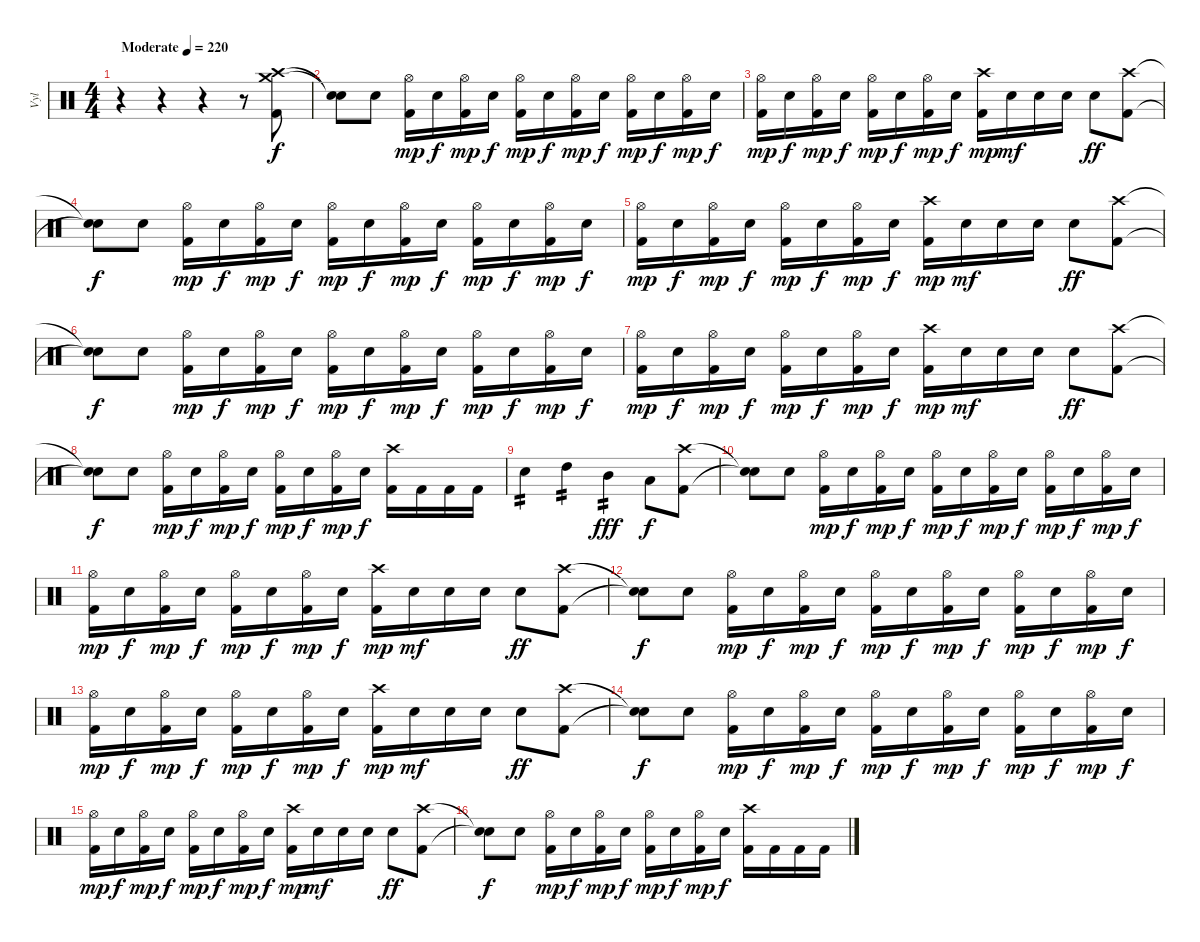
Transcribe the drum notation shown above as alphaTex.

\track ("Vyl" "Vyl") {instrument percussion}
\staff {score}
\articulation defaults
\ts (4 4)
\tempo (220 "Moderate")
\clef neutral
\ks c
r.4{dy f} r.4 r.4 r.8 ("Crash high (hit)" "Crash medium (hit)" "Kick (hit) 2").8 |
("Snare (hit)"{t} "Snare (hit)"{t}).8 "Snare (hit) 2".8 ("Hi-Hat (open)" "Kick (hit) 2").16{dy mp} "Snare (hit) 2".16{dy f} ("Hi-Hat (open)" "Kick (hit) 2").16{dy mp} "Snare (hit) 2".16{dy f} ("Hi-Hat (open)" "Kick (hit) 2").16{dy mp} "Snare (hit) 2".16{dy f} ("Hi-Hat (open)" "Kick (hit) 2").16{dy mp} "Snare (hit) 2".16{dy f} ("Hi-Hat (open)" "Kick (hit) 2").16{dy mp} "Snare (hit) 2".16{dy f} ("Hi-Hat (open)" "Kick (hit) 2").16{dy mp} "Snare (hit) 2".16{dy f} |
("Hi-Hat (open)" "Kick (hit) 2").16{dy mp} "Snare (hit) 2".16{dy f} ("Hi-Hat (open)" "Kick (hit) 2").16{dy mp} "Snare (hit) 2".16{dy f} ("Hi-Hat (open)" "Kick (hit) 2").16{dy mp} "Snare (hit) 2".16{dy f} ("Hi-Hat (open)" "Kick (hit) 2").16{dy mp} "Snare (hit) 2".16{dy f} ("Crash high (hit)" "Kick (hit) 2").16{dy mp} "Snare (hit) 2".16{dy mf} "Snare (hit) 2".16 "Snare (hit) 2".16 "Snare (hit) 2".8{dy ff} ("Crash high (hit)" "Kick (hit) 2").8 |
("Snare (hit)"{t} "Snare (hit)"{t}).8{dy f} "Snare (hit) 2".8 ("Hi-Hat (open)" "Kick (hit) 2").16{dy mp} "Snare (hit) 2".16{dy f} ("Hi-Hat (open)" "Kick (hit) 2").16{dy mp} "Snare (hit) 2".16{dy f} ("Hi-Hat (open)" "Kick (hit) 2").16{dy mp} "Snare (hit) 2".16{dy f} ("Hi-Hat (open)" "Kick (hit) 2").16{dy mp} "Snare (hit) 2".16{dy f} ("Hi-Hat (open)" "Kick (hit) 2").16{dy mp} "Snare (hit) 2".16{dy f} ("Hi-Hat (open)" "Kick (hit) 2").16{dy mp} "Snare (hit) 2".16{dy f} |
("Hi-Hat (open)" "Kick (hit) 2").16{dy mp} "Snare (hit) 2".16{dy f} ("Hi-Hat (open)" "Kick (hit) 2").16{dy mp} "Snare (hit) 2".16{dy f} ("Hi-Hat (open)" "Kick (hit) 2").16{dy mp} "Snare (hit) 2".16{dy f} ("Hi-Hat (open)" "Kick (hit) 2").16{dy mp} "Snare (hit) 2".16{dy f} ("Crash high (hit)" "Kick (hit) 2").16{dy mp} "Snare (hit) 2".16{dy mf} "Snare (hit) 2".16 "Snare (hit) 2".16 "Snare (hit) 2".8{dy ff} ("Crash high (hit)" "Kick (hit) 2").8 |
("Snare (hit)"{t} "Snare (hit)"{t}).8{dy f} "Snare (hit) 2".8 ("Hi-Hat (open)" "Kick (hit) 2").16{dy mp} "Snare (hit) 2".16{dy f} ("Hi-Hat (open)" "Kick (hit) 2").16{dy mp} "Snare (hit) 2".16{dy f} ("Hi-Hat (open)" "Kick (hit) 2").16{dy mp} "Snare (hit) 2".16{dy f} ("Hi-Hat (open)" "Kick (hit) 2").16{dy mp} "Snare (hit) 2".16{dy f} ("Hi-Hat (open)" "Kick (hit) 2").16{dy mp} "Snare (hit) 2".16{dy f} ("Hi-Hat (open)" "Kick (hit) 2").16{dy mp} "Snare (hit) 2".16{dy f} |
("Hi-Hat (open)" "Kick (hit) 2").16{dy mp} "Snare (hit) 2".16{dy f} ("Hi-Hat (open)" "Kick (hit) 2").16{dy mp} "Snare (hit) 2".16{dy f} ("Hi-Hat (open)" "Kick (hit) 2").16{dy mp} "Snare (hit) 2".16{dy f} ("Hi-Hat (open)" "Kick (hit) 2").16{dy mp} "Snare (hit) 2".16{dy f} ("Crash high (hit)" "Kick (hit) 2").16{dy mp} "Snare (hit) 2".16{dy mf} "Snare (hit) 2".16 "Snare (hit) 2".16 "Snare (hit) 2".8{dy ff} ("Crash high (hit)" "Kick (hit) 2").8 |
("Snare (hit)"{t} "Snare (hit)"{t}).8{dy f} "Snare (hit) 2".8 ("Hi-Hat (open)" "Kick (hit) 2").16{dy mp} "Snare (hit) 2".16{dy f} ("Hi-Hat (open)" "Kick (hit) 2").16{dy mp} "Snare (hit) 2".16{dy f} ("Hi-Hat (open)" "Kick (hit) 2").16{dy mp} "Snare (hit) 2".16{dy f} ("Hi-Hat (open)" "Kick (hit) 2").16{dy mp} "Snare (hit) 2".16{dy f} ("Crash high (hit)" "Kick (hit) 2").16 "Kick (hit) 2".16 "Kick (hit) 2".16 "Kick (hit) 2".16 |
"Snare (hit) 2".4{tp 2} "High Tom (hit)".4{tp 2} "Mid Tom (hit)".4{tp 2 dy fff} "Low Tom (hit)".8{dy f} ("Crash high (hit)" "Kick (hit) 2").8 |
("Snare (hit)"{t} "Snare (hit)"{t}).8 "Snare (hit) 2".8 ("Hi-Hat (open)" "Kick (hit) 2").16{dy mp} "Snare (hit) 2".16{dy f} ("Hi-Hat (open)" "Kick (hit) 2").16{dy mp} "Snare (hit) 2".16{dy f} ("Hi-Hat (open)" "Kick (hit) 2").16{dy mp} "Snare (hit) 2".16{dy f} ("Hi-Hat (open)" "Kick (hit) 2").16{dy mp} "Snare (hit) 2".16{dy f} ("Hi-Hat (open)" "Kick (hit) 2").16{dy mp} "Snare (hit) 2".16{dy f} ("Hi-Hat (open)" "Kick (hit) 2").16{dy mp} "Snare (hit) 2".16{dy f} |
("Hi-Hat (open)" "Kick (hit) 2").16{dy mp} "Snare (hit) 2".16{dy f} ("Hi-Hat (open)" "Kick (hit) 2").16{dy mp} "Snare (hit) 2".16{dy f} ("Hi-Hat (open)" "Kick (hit) 2").16{dy mp} "Snare (hit) 2".16{dy f} ("Hi-Hat (open)" "Kick (hit) 2").16{dy mp} "Snare (hit) 2".16{dy f} ("Crash high (hit)" "Kick (hit) 2").16{dy mp} "Snare (hit) 2".16{dy mf} "Snare (hit) 2".16 "Snare (hit) 2".16 "Snare (hit) 2".8{dy ff} ("Crash high (hit)" "Kick (hit) 2").8 |
("Snare (hit)"{t} "Snare (hit)"{t}).8{dy f} "Snare (hit) 2".8 ("Hi-Hat (open)" "Kick (hit) 2").16{dy mp} "Snare (hit) 2".16{dy f} ("Hi-Hat (open)" "Kick (hit) 2").16{dy mp} "Snare (hit) 2".16{dy f} ("Hi-Hat (open)" "Kick (hit) 2").16{dy mp} "Snare (hit) 2".16{dy f} ("Hi-Hat (open)" "Kick (hit) 2").16{dy mp} "Snare (hit) 2".16{dy f} ("Hi-Hat (open)" "Kick (hit) 2").16{dy mp} "Snare (hit) 2".16{dy f} ("Hi-Hat (open)" "Kick (hit) 2").16{dy mp} "Snare (hit) 2".16{dy f} |
("Hi-Hat (open)" "Kick (hit) 2").16{dy mp} "Snare (hit) 2".16{dy f} ("Hi-Hat (open)" "Kick (hit) 2").16{dy mp} "Snare (hit) 2".16{dy f} ("Hi-Hat (open)" "Kick (hit) 2").16{dy mp} "Snare (hit) 2".16{dy f} ("Hi-Hat (open)" "Kick (hit) 2").16{dy mp} "Snare (hit) 2".16{dy f} ("Crash high (hit)" "Kick (hit) 2").16{dy mp} "Snare (hit) 2".16{dy mf} "Snare (hit) 2".16 "Snare (hit) 2".16 "Snare (hit) 2".8{dy ff} ("Crash high (hit)" "Kick (hit) 2").8 |
("Snare (hit)"{t} "Snare (hit)"{t}).8{dy f} "Snare (hit) 2".8 ("Hi-Hat (open)" "Kick (hit) 2").16{dy mp} "Snare (hit) 2".16{dy f} ("Hi-Hat (open)" "Kick (hit) 2").16{dy mp} "Snare (hit) 2".16{dy f} ("Hi-Hat (open)" "Kick (hit) 2").16{dy mp} "Snare (hit) 2".16{dy f} ("Hi-Hat (open)" "Kick (hit) 2").16{dy mp} "Snare (hit) 2".16{dy f} ("Hi-Hat (open)" "Kick (hit) 2").16{dy mp} "Snare (hit) 2".16{dy f} ("Hi-Hat (open)" "Kick (hit) 2").16{dy mp} "Snare (hit) 2".16{dy f} |
("Hi-Hat (open)" "Kick (hit) 2").16{dy mp} "Snare (hit) 2".16{dy f} ("Hi-Hat (open)" "Kick (hit) 2").16{dy mp} "Snare (hit) 2".16{dy f} ("Hi-Hat (open)" "Kick (hit) 2").16{dy mp} "Snare (hit) 2".16{dy f} ("Hi-Hat (open)" "Kick (hit) 2").16{dy mp} "Snare (hit) 2".16{dy f} ("Crash high (hit)" "Kick (hit) 2").16{dy mp} "Snare (hit) 2".16{dy mf} "Snare (hit) 2".16 "Snare (hit) 2".16 "Snare (hit) 2".8{dy ff} ("Crash high (hit)" "Kick (hit) 2").8 |
("Snare (hit)"{t} "Snare (hit)"{t}).8{dy f} "Snare (hit) 2".8 ("Hi-Hat (open)" "Kick (hit) 2").16{dy mp} "Snare (hit) 2".16{dy f} ("Hi-Hat (open)" "Kick (hit) 2").16{dy mp} "Snare (hit) 2".16{dy f} ("Hi-Hat (open)" "Kick (hit) 2").16{dy mp} "Snare (hit) 2".16{dy f} ("Hi-Hat (open)" "Kick (hit) 2").16{dy mp} "Snare (hit) 2".16{dy f} ("Crash high (hit)" "Kick (hit) 2").16 "Kick (hit) 2".16 "Kick (hit) 2".16 "Kick (hit) 2".16
